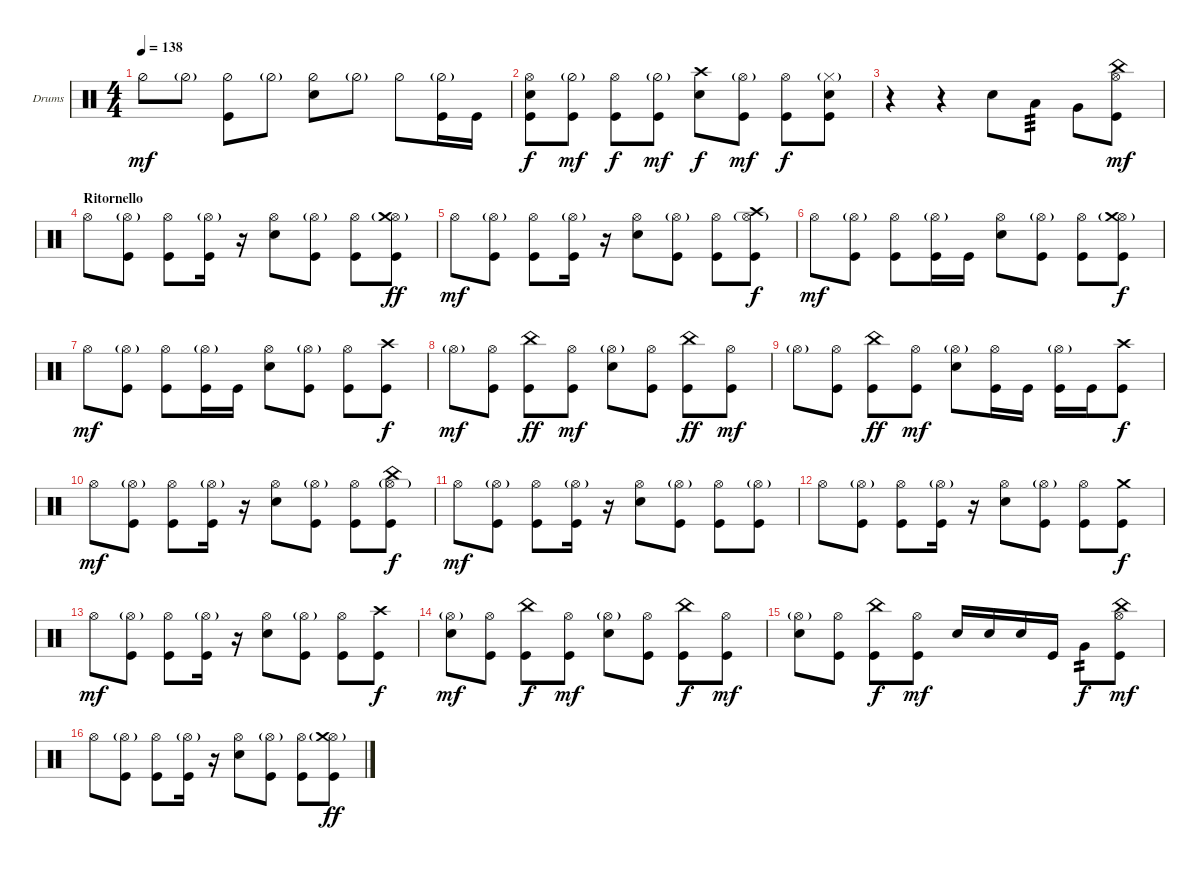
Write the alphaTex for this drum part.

\defaultSystemsLayout 4
\bracketExtendMode groupsimilarinstruments
\firstSystemTrackNameOrientation horizontal
\otherSystemsTrackNameOrientation horizontal
\track ("Valverde Drums" "Drums") {instrument percussion}
\staff {score}
\articulation defaults
\ts (4 4)
\tempo 138
\clef neutral
\scale
0.277778
\ks c "Hi-Hat (half)".8{dy mf} "Hi-Hat (half)"{g}.8
("Hi-Hat (half)" "Kick (hit)").8 "Hi-Hat (half)"{g}.8 ("Hi-Hat (half)" "Snare (hit) 2").8 "Hi-Hat (half)"{g}.8 "Hi-Hat (half)".8 ("Kick (hit)" "Hi-Hat (half)"{g}).16 "Kick (hit)".16 |
\scale
0.24024 ("Snare (hit) 2" "Hi-Hat (open)" "Kick (hit)").8{dy f} ("Kick (hit)" "Hi-Hat (half)"{g}).8{dy mf} ("Kick (hit)" "Hi-Hat (open)").8{dy f} ("Hi-Hat (half)"{g} "Kick (hit)").8{dy mf} ("Snare (hit) 2" "Crash high (hit)").8{dy f} ("Kick (hit)" "Hi-Hat (open)"{g}).8{dy mf} ("Kick (hit)" "Hi-Hat (open)").8{dy f} ("Kick (hit)" "Hi-Hat (closed)"{g} "Snare (hit) 2").8 |
\scale
0.21021 r.4 r.4 "Snare (hit) 2".8 "Low Tom (hit)".8{tp 3} "Very Low Tom (hit)".8 ("Hi-Hat (open)" "China (hit)" "Kick (hit)").8{dy mf} |
\section ("" "Ritornello")
"Hi-Hat (open)".8 ("Hi-Hat (open)"{g} "Kick (hit)").8 ("Hi-Hat (open)" "Kick (hit)").8 ("Hi-Hat (open)"{g} "Kick (hit)").16 r.16 ("Hi-Hat (open)" "Snare (hit) 2").8 ("Hi-Hat (open)"{g} "Kick (hit)").8 ("Hi-Hat (open)" "Kick (hit)").8 ("Hi-Hat (open)"{g} "Kick (hit)" "Crash medium (hit)").8{dy ff} |
"Hi-Hat (open)".8{dy mf} ("Hi-Hat (open)"{g} "Kick (hit)").8 ("Hi-Hat (open)" "Kick (hit)").8 ("Hi-Hat (open)"{g} "Kick (hit)").16 r.16 ("Hi-Hat (open)" "Snare (hit) 2").8 ("Hi-Hat (open)"{g} "Kick (hit)").8 ("Hi-Hat (open)" "Kick (hit)").8 ("Hi-Hat (open)"{g} "Kick (hit)" "Crash high (hit)").8{dy f} |
"Hi-Hat (open)".8{dy mf} ("Hi-Hat (open)"{g} "Kick (hit)").8 ("Hi-Hat (open)" "Kick (hit)").8 ("Hi-Hat (open)"{g} "Kick (hit)").16 "Kick (hit)".16 ("Hi-Hat (open)" "Snare (hit) 2").8 ("Hi-Hat (open)"{g} "Kick (hit)").8 ("Hi-Hat (open)" "Kick (hit)").8 ("Hi-Hat (open)"{g} "Kick (hit)" "Crash medium (hit)").8{dy f} |
"Hi-Hat (open)".8{dy mf} ("Hi-Hat (open)"{g} "Kick (hit)").8 ("Hi-Hat (open)" "Kick (hit)").8 ("Hi-Hat (open)"{g} "Kick (hit)").16 "Kick (hit)".16 ("Hi-Hat (open)" "Snare (hit) 2").8 ("Hi-Hat (open)"{g} "Kick (hit)").8 ("Hi-Hat (open)" "Kick (hit)").8 ("Kick (hit)" "Crash high (hit)").8{dy f} |
"Hi-Hat (open)"{g}.8{dy mf} ("Kick (hit)" "Hi-Hat (open)").8 ("China (hit)" "Kick (hit)").8{dy ff} ("Hi-Hat (open)" "Kick (hit)").8{dy mf} ("Hi-Hat (open)"{g} "Snare (hit) 2").8 ("Kick (hit)" "Hi-Hat (open)").8 ("China (hit)" "Kick (hit)").8{dy ff} ("Kick (hit)" "Hi-Hat (open)").8{dy mf} |
"Hi-Hat (open)"{g}.8 ("Kick (hit)" "Hi-Hat (open)").8 ("China (hit)" "Kick (hit)").8{dy ff} ("Hi-Hat (open)" "Kick (hit)").8{dy mf} ("Hi-Hat (open)"{g} "Snare (hit) 2").8 ("Kick (hit)" "Hi-Hat (open)").16 "Kick (hit)".16 ("Kick (hit)" "Hi-Hat (open)"{g}).16 "Kick (hit)".16 ("Kick (hit)" "Crash high (hit)").8{dy f} |
"Hi-Hat (open)".8{dy mf} ("Hi-Hat (open)"{g} "Kick (hit)").8 ("Hi-Hat (open)" "Kick (hit)").8 ("Hi-Hat (open)"{g} "Kick (hit)").16 r.16 ("Hi-Hat (open)" "Snare (hit) 2").8 ("Hi-Hat (open)"{g} "Kick (hit)").8 ("Hi-Hat (open)" "Kick (hit)").8 ("Hi-Hat (open)"{g} "Kick (hit)" "China (hit)").8{dy f} |
"Hi-Hat (open)".8{dy mf} ("Hi-Hat (open)"{g} "Kick (hit)").8 ("Hi-Hat (open)" "Kick (hit)").8 ("Hi-Hat (open)"{g} "Kick (hit)").16 r.16 ("Hi-Hat (open)" "Snare (hit) 2").8 ("Hi-Hat (open)"{g} "Kick (hit)").8 ("Hi-Hat (open)" "Kick (hit)").8 ("Hi-Hat (open)"{g} "Kick (hit)").8 |
"Hi-Hat (open)".8 ("Hi-Hat (open)"{g} "Kick (hit)").8 ("Hi-Hat (open)" "Kick (hit)").8 ("Hi-Hat (open)"{g} "Kick (hit)").16 r.16 ("Hi-Hat (open)" "Snare (hit) 2").8 ("Hi-Hat (open)"{g} "Kick (hit)").8 ("Hi-Hat (open)" "Kick (hit)").8 ("Kick (hit)" "Crash medium (hit)").8{dy f} |
"Hi-Hat (open)".8{dy mf} ("Hi-Hat (open)"{g} "Kick (hit)").8 ("Hi-Hat (open)" "Kick (hit)").8 ("Hi-Hat (open)"{g} "Kick (hit)").16 r.16 ("Hi-Hat (open)" "Snare (hit) 2").8 ("Hi-Hat (open)"{g} "Kick (hit)").8 ("Hi-Hat (open)" "Kick (hit)").8 ("Kick (hit)" "Crash high (hit)").8{dy f} |
("Hi-Hat (open)"{g} "Snare (hit) 2").8{dy mf} ("Kick (hit)" "Hi-Hat (open)").8 ("China (hit)" "Kick (hit)").8{dy f} ("Hi-Hat (open)" "Kick (hit)").8{dy mf} ("Hi-Hat (open)"{g} "Snare (hit) 2").8 ("Kick (hit)" "Hi-Hat (open)").8 ("China (hit)" "Kick (hit)").8{dy f} ("Kick (hit)" "Hi-Hat (open)").8{dy mf} |
("Hi-Hat (open)"{g} "Snare (hit) 2").8 ("Kick (hit)" "Hi-Hat (open)").8 ("China (hit)" "Kick (hit)").8{dy f} ("Kick (hit)" "Hi-Hat (open)").8{dy mf} "Snare (hit) 2".16 "Snare (hit) 2".16 "Snare (hit) 2".16 "Kick (hit)".16 "Very Low Tom (hit)".8{tp 2 dy f} ("Hi-Hat (open)" "China (hit)" "Kick (hit)").8{dy mf} |
"Hi-Hat (open)".8 ("Hi-Hat (open)"{g} "Kick (hit)").8 ("Hi-Hat (open)" "Kick (hit)").8 ("Hi-Hat (open)"{g} "Kick (hit)").16 r.16 ("Hi-Hat (open)" "Snare (hit) 2").8 ("Hi-Hat (open)"{g} "Kick (hit)").8 ("Hi-Hat (open)" "Kick (hit)").8 ("Hi-Hat (open)"{g} "Kick (hit)" "Crash medium (hit)").8{dy ff}
